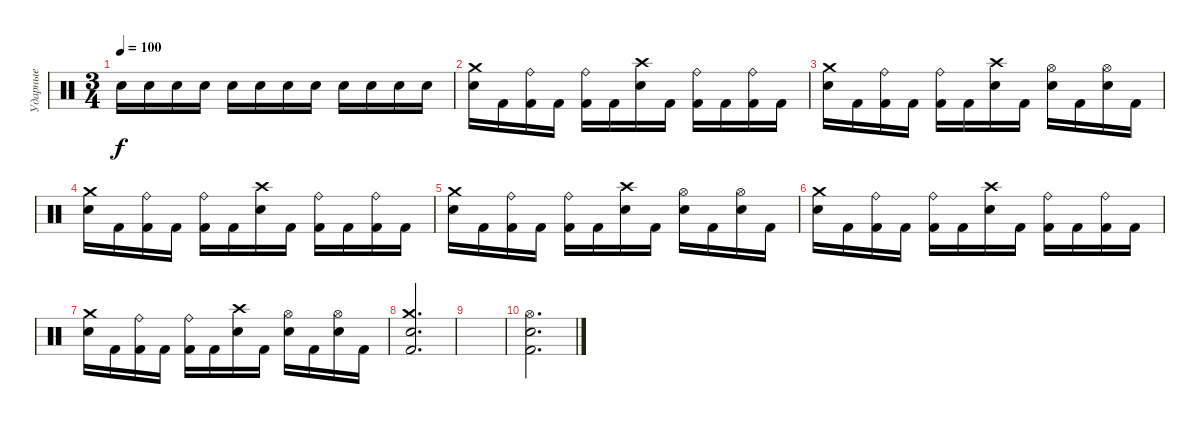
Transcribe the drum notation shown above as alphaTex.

\track ("Ударные" "Ударные") {instrument percussion}
\staff {score}
\articulation defaults
\ts (3 4)
\tempo 100
\clef neutral
\ks c "Electric Snare (hit)".16{dy f} "Electric Snare (hit)".16 "Electric Snare (hit)".16 "Electric Snare (hit)".16 "Electric Snare (hit)".16 "Electric Snare (hit)".16 "Electric Snare (hit)".16 "Electric Snare (hit)".16 "Electric Snare (hit)".16 "Electric Snare (hit)".16 "Electric Snare (hit)".16 "Electric Snare (hit)".16
|
("Crash medium (hit)" "Electric Snare (hit)").16 "Kick (hit) 2".16 ("Ride (bell)" "Kick (hit) 2").16 "Kick (hit) 2".16 ("Ride (bell)" "Kick (hit) 2").16 "Kick (hit) 2".16 ("Crash high (hit)" "Electric Snare (hit)").16 "Kick (hit) 2".16 ("Ride (bell)" "Kick (hit) 2").16 "Kick (hit) 2".16 ("Ride (bell)" "Kick (hit) 2").16 "Kick (hit) 2".16 |
("Crash medium (hit)" "Electric Snare (hit)").16 "Kick (hit) 2".16 ("Ride (bell)" "Kick (hit) 2").16 "Kick (hit) 2".16 ("Ride (bell)" "Kick (hit) 2").16 "Kick (hit) 2".16 ("Crash high (hit)" "Electric Snare (hit)").16 "Kick (hit) 2".16 ("Hi-Hat (open)" "Electric Snare (hit)").16 "Kick (hit) 2".16 ("Hi-Hat (open)" "Electric Snare (hit)").16 "Kick (hit) 2".16 |
("Crash medium (hit)" "Electric Snare (hit)").16 "Kick (hit) 2".16 ("Ride (bell)" "Kick (hit) 2").16 "Kick (hit) 2".16 ("Ride (bell)" "Kick (hit) 2").16 "Kick (hit) 2".16 ("Crash high (hit)" "Electric Snare (hit)").16 "Kick (hit) 2".16 ("Ride (bell)" "Kick (hit) 2").16 "Kick (hit) 2".16 ("Ride (bell)" "Kick (hit) 2").16 "Kick (hit) 2".16 |
("Crash medium (hit)" "Electric Snare (hit)").16 "Kick (hit) 2".16 ("Ride (bell)" "Kick (hit) 2").16 "Kick (hit) 2".16 ("Ride (bell)" "Kick (hit) 2").16 "Kick (hit) 2".16 ("Crash high (hit)" "Electric Snare (hit)").16 "Kick (hit) 2".16 ("Hi-Hat (open)" "Electric Snare (hit)").16 "Kick (hit) 2".16 ("Hi-Hat (open)" "Electric Snare (hit)").16 "Kick (hit) 2".16 |
("Crash medium (hit)" "Electric Snare (hit)").16 "Kick (hit) 2".16 ("Ride (bell)" "Kick (hit) 2").16 "Kick (hit) 2".16 ("Ride (bell)" "Kick (hit) 2").16 "Kick (hit) 2".16 ("Crash high (hit)" "Electric Snare (hit)").16 "Kick (hit) 2".16 ("Ride (bell)" "Kick (hit) 2").16 "Kick (hit) 2".16 ("Ride (bell)" "Kick (hit) 2").16 "Kick (hit) 2".16 |
("Crash medium (hit)" "Electric Snare (hit)").16 "Kick (hit) 2".16 ("Ride (bell)" "Kick (hit) 2").16 "Kick (hit) 2".16 ("Ride (bell)" "Kick (hit) 2").16 "Kick (hit) 2".16 ("Crash high (hit)" "Electric Snare (hit)").16 "Kick (hit) 2".16 ("Hi-Hat (open)" "Electric Snare (hit)").16 "Kick (hit) 2".16 ("Hi-Hat (open)" "Electric Snare (hit)").16 "Kick (hit) 2".16 |
("Crash medium (hit)" "Electric Snare (hit)" "Kick (hit) 2").2{d} |
|
("Hi-Hat (open)" "Electric Snare (hit)" "Kick (hit) 2").2{d}
